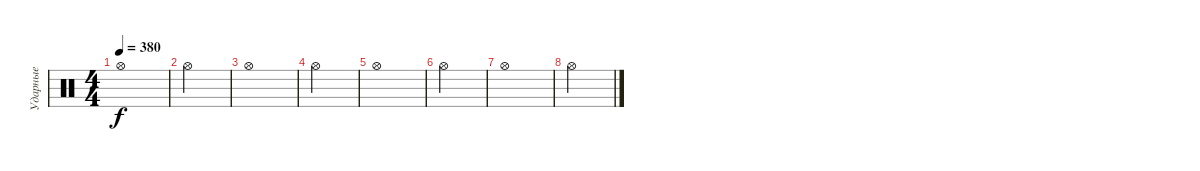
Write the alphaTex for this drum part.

\track ("Ударные" "Ударные") {instrument percussion}
\staff {score}
\articulation defaults
\ts (4 4)
\tempo 380
\clef neutral
\ks c "Hi-Hat (open)".1{dy f}
|
"Hi-Hat (open)".2 |
"Hi-Hat (open)".1 |
"Hi-Hat (open)".2 |
"Hi-Hat (open)".1 |
"Hi-Hat (open)".2 |
"Hi-Hat (open)".1 |
"Hi-Hat (open)".2
